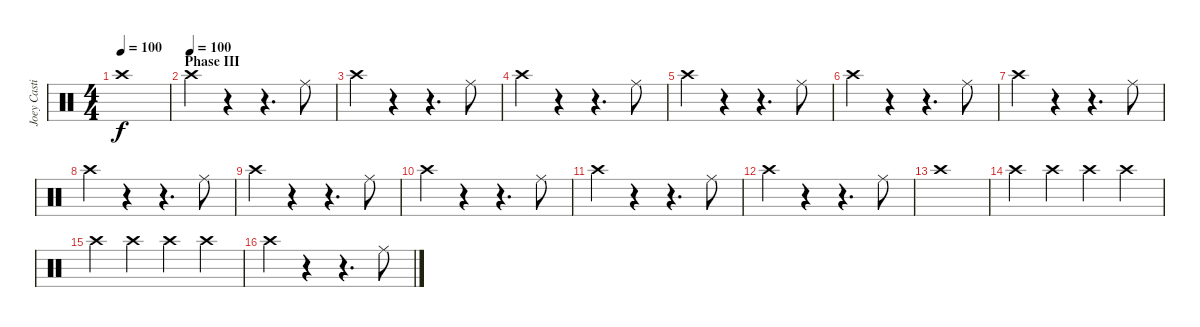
\track ("Joey Castillo" "Joey Casti") {instrument percussion}
\staff {score}
\articulation defaults
\ts (4 4)
\tempo 100
\clef neutral
\ks c "Crash high (hit)".1{dy f}
|
\section ("" "Phase III")
\tempo (100)
"Crash high (hit)".4 r.4 r.4{d} "Ride (middle)".8 |
"Crash high (hit)".4 r.4 r.4{d} "Ride (middle)".8 |
"Crash high (hit)".4 r.4 r.4{d} "Ride (middle)".8 |
"Crash high (hit)".4 r.4 r.4{d} "Ride (middle)".8 |
"Crash high (hit)".4 r.4 r.4{d} "Ride (middle)".8 |
"Crash high (hit)".4 r.4 r.4{d} "Ride (middle)".8 |
"Crash high (hit)".4 r.4 r.4{d} "Ride (middle)".8 |
"Crash high (hit)".4 r.4 r.4{d} "Ride (middle)".8 |
"Crash high (hit)".4 r.4 r.4{d} "Ride (middle)".8 |
"Crash high (hit)".4 r.4 r.4{d} "Ride (middle)".8 |
"Crash high (hit)".4 r.4 r.4{d} "Ride (middle)".8 |
"Crash high (hit)".1 |
"Crash high (hit)".4 "Crash high (hit)".4 "Crash high (hit)".4 "Crash high (hit)".4 |
"Crash high (hit)".4 "Crash high (hit)".4 "Crash high (hit)".4 "Crash high (hit)".4 |
"Crash high (hit)".4 r.4 r.4{d} "Ride (middle)".8
